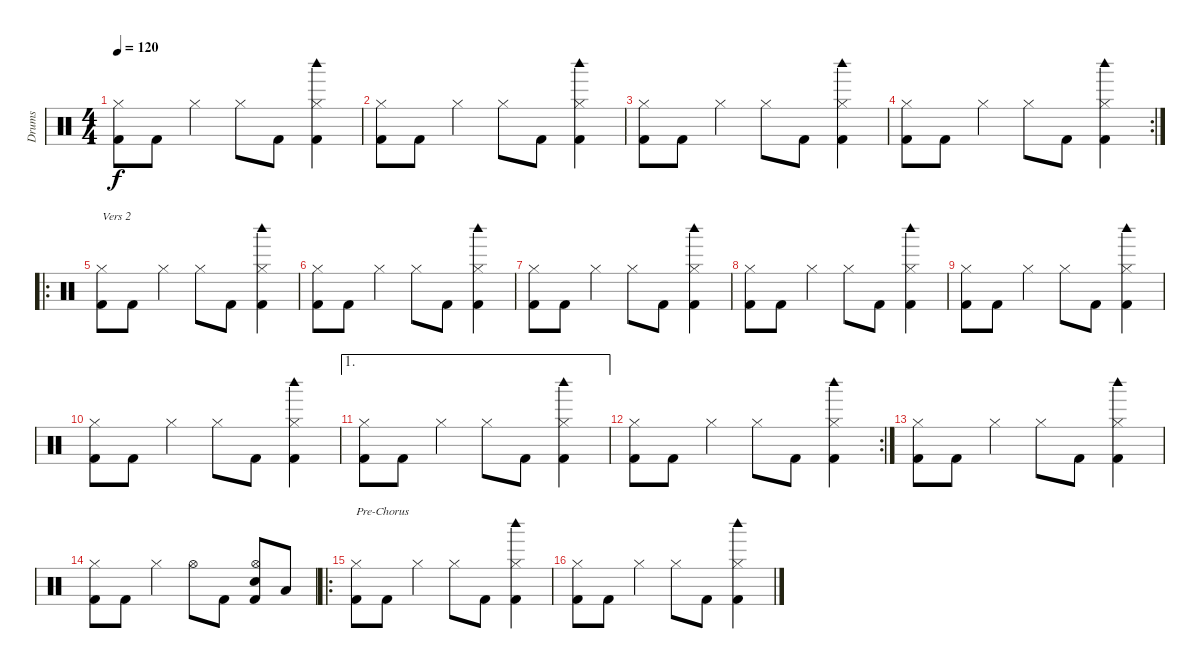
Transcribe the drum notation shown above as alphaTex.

\track ("Drums" "Drums") {instrument percussion}
\staff {score}
\articulation defaults
\ts (4 4)
\tempo 120
\clef neutral
\ks c
("Hi-Hat (closed)" "Kick (hit) 2").8{dy f} "Kick (hit) 2".8 "Hi-Hat (closed)".4 "Hi-Hat (closed)".8 "Kick (hit) 2".8 ("Hi-Hat (closed)" "Woodblock high (hit)" "Kick (hit) 2").4 |
("Hi-Hat (closed)" "Kick (hit) 2").8 "Kick (hit) 2".8 "Hi-Hat (closed)".4 "Hi-Hat (closed)".8 "Kick (hit) 2".8 ("Hi-Hat (closed)" "Woodblock high (hit)" "Kick (hit) 2").4 |
("Hi-Hat (closed)" "Kick (hit) 2").8 "Kick (hit) 2".8 "Hi-Hat (closed)".4 "Hi-Hat (closed)".8 "Kick (hit) 2".8 ("Hi-Hat (closed)" "Woodblock high (hit)" "Kick (hit) 2").4 |
\rc 2
("Hi-Hat (closed)" "Kick (hit) 2").8 "Kick (hit) 2".8 "Hi-Hat (closed)".4 "Hi-Hat (closed)".8 "Kick (hit) 2".8 ("Hi-Hat (closed)" "Woodblock high (hit)" "Kick (hit) 2").4 |
\ro
("Hi-Hat (closed)" "Kick (hit) 2").8{txt "Vers 2"} "Kick (hit) 2".8 "Hi-Hat (closed)".4 "Hi-Hat (closed)".8 "Kick (hit) 2".8 ("Hi-Hat (closed)" "Woodblock high (hit)" "Kick (hit) 2").4 |
("Hi-Hat (closed)" "Kick (hit) 2").8 "Kick (hit) 2".8 "Hi-Hat (closed)".4 "Hi-Hat (closed)".8 "Kick (hit) 2".8 ("Hi-Hat (closed)" "Woodblock high (hit)" "Kick (hit) 2").4 |
("Hi-Hat (closed)" "Kick (hit) 2").8 "Kick (hit) 2".8 "Hi-Hat (closed)".4 "Hi-Hat (closed)".8 "Kick (hit) 2".8 ("Hi-Hat (closed)" "Woodblock high (hit)" "Kick (hit) 2").4 |
("Hi-Hat (closed)" "Kick (hit) 2").8 "Kick (hit) 2".8 "Hi-Hat (closed)".4 "Hi-Hat (closed)".8 "Kick (hit) 2".8 ("Hi-Hat (closed)" "Woodblock high (hit)" "Kick (hit) 2").4 |
("Hi-Hat (closed)" "Kick (hit) 2").8 "Kick (hit) 2".8 "Hi-Hat (closed)".4 "Hi-Hat (closed)".8 "Kick (hit) 2".8 ("Hi-Hat (closed)" "Woodblock high (hit)" "Kick (hit) 2").4 |
("Hi-Hat (closed)" "Kick (hit) 2").8 "Kick (hit) 2".8 "Hi-Hat (closed)".4 "Hi-Hat (closed)".8 "Kick (hit) 2".8 ("Hi-Hat (closed)" "Woodblock high (hit)" "Kick (hit) 2").4 |
\ae 1
("Hi-Hat (closed)" "Kick (hit) 2").8 "Kick (hit) 2".8 "Hi-Hat (closed)".4 "Hi-Hat (closed)".8 "Kick (hit) 2".8 ("Hi-Hat (closed)" "Woodblock high (hit)" "Kick (hit) 2").4 |
\rc 2
("Hi-Hat (closed)" "Kick (hit) 2").8 "Kick (hit) 2".8 "Hi-Hat (closed)".4 "Hi-Hat (closed)".8 "Kick (hit) 2".8 ("Hi-Hat (closed)" "Woodblock high (hit)" "Kick (hit) 2").4 |
("Hi-Hat (closed)" "Kick (hit) 2").8 "Kick (hit) 2".8 "Hi-Hat (closed)".4 "Hi-Hat (closed)".8 "Kick (hit) 2".8 ("Hi-Hat (closed)" "Woodblock high (hit)" "Kick (hit) 2").4 |
("Hi-Hat (closed)" "Kick (hit) 2").8 "Kick (hit) 2".8 "Hi-Hat (closed)".4 "Hi-Hat (open)".8 "Kick (hit) 2".8 ("Hi-Hat (open)" "Snare (hit) 2" "Kick (hit) 2").8 "Low Tom (hit)".8 |
\ro
("Hi-Hat (closed)" "Kick (hit) 2").8{txt "Pre-Chorus"} "Kick (hit) 2".8 "Hi-Hat (closed)".4 "Hi-Hat (closed)".8 "Kick (hit) 2".8 ("Hi-Hat (closed)" "Woodblock high (hit)" "Kick (hit) 2").4 |
("Hi-Hat (closed)" "Kick (hit) 2").8 "Kick (hit) 2".8 "Hi-Hat (closed)".4 "Hi-Hat (closed)".8 "Kick (hit) 2".8 ("Hi-Hat (closed)" "Woodblock high (hit)" "Kick (hit) 2").4
